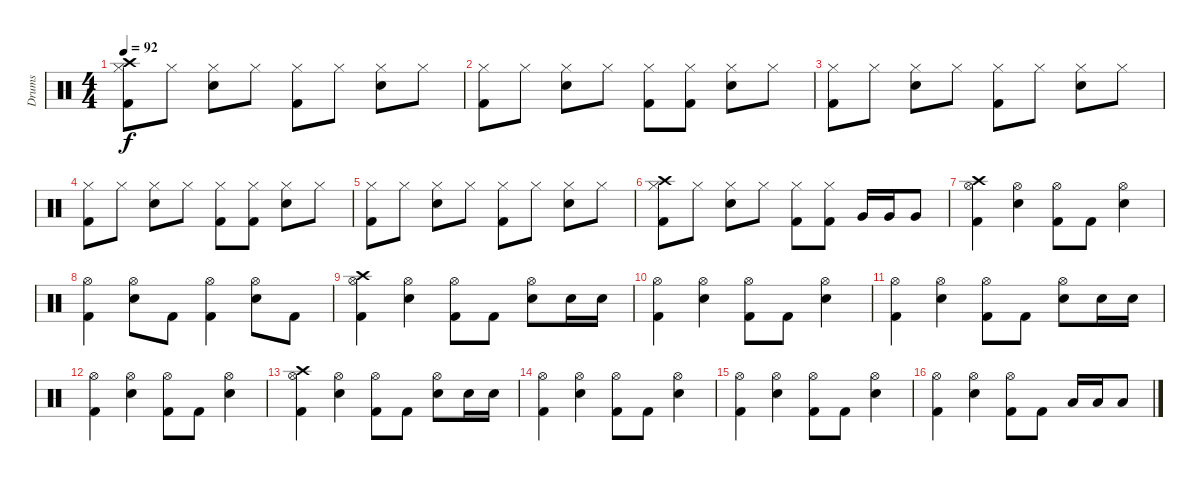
\track ("Drums" "Drums") {instrument percussion}
\staff {score}
\articulation defaults
\ts (4 4)
\tempo 92
\clef neutral
\ks c
("Kick (hit) 2" "Hi-Hat (closed)" "Crash high (hit)").8{dy f} "Hi-Hat (closed)".8 ("Electric Snare (hit)" "Hi-Hat (closed)").8 "Hi-Hat (closed)".8 ("Kick (hit) 2" "Hi-Hat (closed)").8 "Hi-Hat (closed)".8 ("Electric Snare (hit)" "Hi-Hat (closed)").8 "Hi-Hat (closed)".8 |
("Kick (hit) 2" "Hi-Hat (closed)").8 "Hi-Hat (closed)".8 ("Electric Snare (hit)" "Hi-Hat (closed)").8 "Hi-Hat (closed)".8 ("Kick (hit) 2" "Hi-Hat (closed)").8 ("Kick (hit) 2" "Hi-Hat (closed)").8 ("Electric Snare (hit)" "Hi-Hat (closed)").8 "Hi-Hat (closed)".8 |
("Kick (hit) 2" "Hi-Hat (closed)").8 "Hi-Hat (closed)".8 ("Electric Snare (hit)" "Hi-Hat (closed)").8 "Hi-Hat (closed)".8 ("Kick (hit) 2" "Hi-Hat (closed)").8 "Hi-Hat (closed)".8 ("Electric Snare (hit)" "Hi-Hat (closed)").8 "Hi-Hat (closed)".8 |
("Kick (hit) 2" "Hi-Hat (closed)").8 "Hi-Hat (closed)".8 ("Electric Snare (hit)" "Hi-Hat (closed)").8 "Hi-Hat (closed)".8 ("Kick (hit) 2" "Hi-Hat (closed)").8 ("Kick (hit) 2" "Hi-Hat (closed)").8 ("Electric Snare (hit)" "Hi-Hat (closed)").8 "Hi-Hat (closed)".8 |
("Kick (hit) 2" "Hi-Hat (closed)").8 "Hi-Hat (closed)".8 ("Electric Snare (hit)" "Hi-Hat (closed)").8 "Hi-Hat (closed)".8 ("Kick (hit) 2" "Hi-Hat (closed)").8 "Hi-Hat (closed)".8 ("Electric Snare (hit)" "Hi-Hat (closed)").8 "Hi-Hat (closed)".8 |
("Kick (hit) 2" "Hi-Hat (closed)" "Crash high (hit)").8 "Hi-Hat (closed)".8 ("Electric Snare (hit)" "Hi-Hat (closed)").8 "Hi-Hat (closed)".8 ("Kick (hit) 2" "Hi-Hat (closed)").8 ("Kick (hit) 2" "Hi-Hat (closed)").8 "Very Low Tom (hit)".16 "Very Low Tom (hit)".16 "Very Low Tom (hit)".8 |
("Kick (hit) 2" "Hi-Hat (open)" "Crash high (hit)").4 ("Electric Snare (hit)" "Hi-Hat (open)").4 ("Kick (hit) 2" "Hi-Hat (open)").8 "Kick (hit) 2".8 ("Electric Snare (hit)" "Hi-Hat (open)").4 |
("Kick (hit) 2" "Hi-Hat (open)").4 ("Electric Snare (hit)" "Hi-Hat (open)").8 "Kick (hit) 2".8 ("Kick (hit) 2" "Hi-Hat (open)").4 ("Electric Snare (hit)" "Hi-Hat (open)").8 "Kick (hit) 2".8 |
("Kick (hit) 2" "Hi-Hat (open)" "Crash high (hit)").4 ("Electric Snare (hit)" "Hi-Hat (open)").4 ("Kick (hit) 2" "Hi-Hat (open)").8 "Kick (hit) 2".8 ("Electric Snare (hit)" "Hi-Hat (open)").8 "Electric Snare (hit)".16 "Electric Snare (hit)".16 |
("Kick (hit) 2" "Hi-Hat (open)").4 ("Electric Snare (hit)" "Hi-Hat (open)").4 ("Kick (hit) 2" "Hi-Hat (open)").8 "Kick (hit) 2".8 ("Electric Snare (hit)" "Hi-Hat (open)").4 |
("Kick (hit) 2" "Hi-Hat (open)").4 ("Electric Snare (hit)" "Hi-Hat (open)").4 ("Kick (hit) 2" "Hi-Hat (open)").8 "Kick (hit) 2".8 ("Electric Snare (hit)" "Hi-Hat (open)").8 "Electric Snare (hit)".16 "Electric Snare (hit)".16 |
("Kick (hit) 2" "Hi-Hat (open)").4 ("Electric Snare (hit)" "Hi-Hat (open)").4 ("Kick (hit) 2" "Hi-Hat (open)").8 "Kick (hit) 2".8 ("Electric Snare (hit)" "Hi-Hat (open)").4 |
("Kick (hit) 2" "Hi-Hat (open)" "Crash high (hit)").4 ("Electric Snare (hit)" "Hi-Hat (open)").4 ("Kick (hit) 2" "Hi-Hat (open)").8 "Kick (hit) 2".8 ("Electric Snare (hit)" "Hi-Hat (open)").8 "Electric Snare (hit)".16 "Electric Snare (hit)".16 |
("Kick (hit) 2" "Hi-Hat (open)").4 ("Electric Snare (hit)" "Hi-Hat (open)").4 ("Kick (hit) 2" "Hi-Hat (open)").8 "Kick (hit) 2".8 ("Electric Snare (hit)" "Hi-Hat (open)").4 |
("Kick (hit) 2" "Hi-Hat (open)").4 ("Electric Snare (hit)" "Hi-Hat (open)").4 ("Kick (hit) 2" "Hi-Hat (open)").8 "Kick (hit) 2".8 ("Electric Snare (hit)" "Hi-Hat (open)").4 |
("Kick (hit) 2" "Hi-Hat (open)").4 ("Electric Snare (hit)" "Hi-Hat (open)").4 ("Kick (hit) 2" "Hi-Hat (open)").8 "Kick (hit) 2".8 "Low Floor Tom (hit)".16 "Low Floor Tom (hit)".16 "Low Floor Tom (hit)".8
